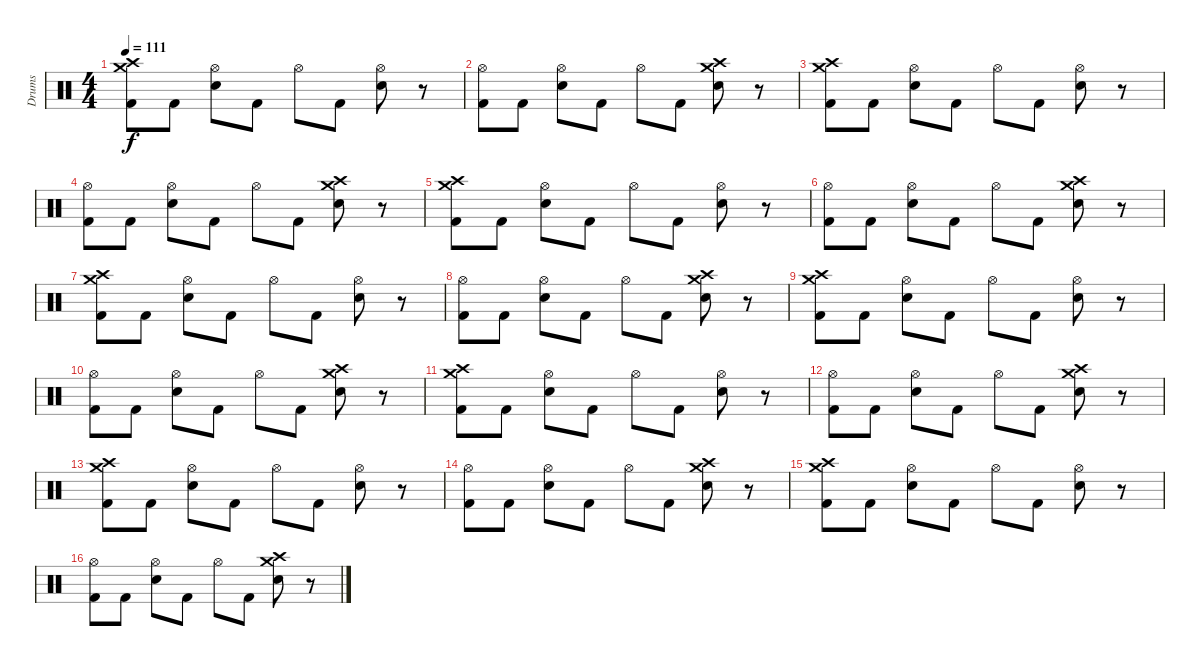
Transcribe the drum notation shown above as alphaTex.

\track ("Drums" "Drums") {instrument percussion}
\staff {score}
\articulation defaults
\ts (4 4)
\tempo 111
\clef neutral
\ks c
("Crash high (hit)" "Crash medium (hit)" "Kick (hit) 2").8{dy f} "Kick (hit) 2".8 ("Hi-Hat (open)" "Snare (hit) 2").8 "Kick (hit) 2".8 "Hi-Hat (open)".8 "Kick (hit) 2".8 ("Hi-Hat (open)" "Snare (hit) 2").8 r.8 |
("Hi-Hat (open)" "Kick (hit) 2").8 "Kick (hit) 2".8 ("Hi-Hat (open)" "Snare (hit) 2").8 "Kick (hit) 2".8 "Hi-Hat (open)".8 "Kick (hit) 2".8 ("Crash high (hit)" "Crash medium (hit)" "Snare (hit) 2").8 r.8 |
("Crash high (hit)" "Crash medium (hit)" "Kick (hit) 2").8 "Kick (hit) 2".8 ("Hi-Hat (open)" "Snare (hit) 2").8 "Kick (hit) 2".8 "Hi-Hat (open)".8 "Kick (hit) 2".8 ("Hi-Hat (open)" "Snare (hit) 2").8 r.8 |
("Hi-Hat (open)" "Kick (hit) 2").8 "Kick (hit) 2".8 ("Hi-Hat (open)" "Snare (hit) 2").8 "Kick (hit) 2".8 "Hi-Hat (open)".8 "Kick (hit) 2".8 ("Crash high (hit)" "Crash medium (hit)" "Snare (hit) 2").8 r.8 |
("Crash high (hit)" "Crash medium (hit)" "Kick (hit) 2").8 "Kick (hit) 2".8 ("Hi-Hat (open)" "Snare (hit) 2").8 "Kick (hit) 2".8 "Hi-Hat (open)".8 "Kick (hit) 2".8 ("Hi-Hat (open)" "Snare (hit) 2").8 r.8 |
("Hi-Hat (open)" "Kick (hit) 2").8 "Kick (hit) 2".8 ("Hi-Hat (open)" "Snare (hit) 2").8 "Kick (hit) 2".8 "Hi-Hat (open)".8 "Kick (hit) 2".8 ("Crash high (hit)" "Crash medium (hit)" "Snare (hit) 2").8 r.8 |
("Crash high (hit)" "Crash medium (hit)" "Kick (hit) 2").8 "Kick (hit) 2".8 ("Hi-Hat (open)" "Snare (hit) 2").8 "Kick (hit) 2".8 "Hi-Hat (open)".8 "Kick (hit) 2".8 ("Hi-Hat (open)" "Snare (hit) 2").8 r.8 |
("Hi-Hat (open)" "Kick (hit) 2").8 "Kick (hit) 2".8 ("Hi-Hat (open)" "Snare (hit) 2").8 "Kick (hit) 2".8 "Hi-Hat (open)".8 "Kick (hit) 2".8 ("Crash high (hit)" "Crash medium (hit)" "Snare (hit) 2").8 r.8 |
("Crash high (hit)" "Crash medium (hit)" "Kick (hit) 2").8 "Kick (hit) 2".8 ("Hi-Hat (open)" "Snare (hit) 2").8 "Kick (hit) 2".8 "Hi-Hat (open)".8 "Kick (hit) 2".8 ("Hi-Hat (open)" "Snare (hit) 2").8 r.8 |
("Hi-Hat (open)" "Kick (hit) 2").8 "Kick (hit) 2".8 ("Hi-Hat (open)" "Snare (hit) 2").8 "Kick (hit) 2".8 "Hi-Hat (open)".8 "Kick (hit) 2".8 ("Crash high (hit)" "Crash medium (hit)" "Snare (hit) 2").8 r.8 |
("Crash high (hit)" "Crash medium (hit)" "Kick (hit) 2").8 "Kick (hit) 2".8 ("Hi-Hat (open)" "Snare (hit) 2").8 "Kick (hit) 2".8 "Hi-Hat (open)".8 "Kick (hit) 2".8 ("Hi-Hat (open)" "Snare (hit) 2").8 r.8 |
("Hi-Hat (open)" "Kick (hit) 2").8 "Kick (hit) 2".8 ("Hi-Hat (open)" "Snare (hit) 2").8 "Kick (hit) 2".8 "Hi-Hat (open)".8 "Kick (hit) 2".8 ("Crash high (hit)" "Crash medium (hit)" "Snare (hit) 2").8 r.8 |
("Crash high (hit)" "Crash medium (hit)" "Kick (hit) 2").8 "Kick (hit) 2".8 ("Hi-Hat (open)" "Snare (hit) 2").8 "Kick (hit) 2".8 "Hi-Hat (open)".8 "Kick (hit) 2".8 ("Hi-Hat (open)" "Snare (hit) 2").8 r.8 |
("Hi-Hat (open)" "Kick (hit) 2").8 "Kick (hit) 2".8 ("Hi-Hat (open)" "Snare (hit) 2").8 "Kick (hit) 2".8 "Hi-Hat (open)".8 "Kick (hit) 2".8 ("Crash high (hit)" "Crash medium (hit)" "Snare (hit) 2").8 r.8 |
("Crash high (hit)" "Crash medium (hit)" "Kick (hit) 2").8 "Kick (hit) 2".8 ("Hi-Hat (open)" "Snare (hit) 2").8 "Kick (hit) 2".8 "Hi-Hat (open)".8 "Kick (hit) 2".8 ("Hi-Hat (open)" "Snare (hit) 2").8 r.8 |
("Hi-Hat (open)" "Kick (hit) 2").8 "Kick (hit) 2".8 ("Hi-Hat (open)" "Snare (hit) 2").8 "Kick (hit) 2".8 "Hi-Hat (open)".8 "Kick (hit) 2".8 ("Crash high (hit)" "Crash medium (hit)" "Snare (hit) 2").8 r.8
